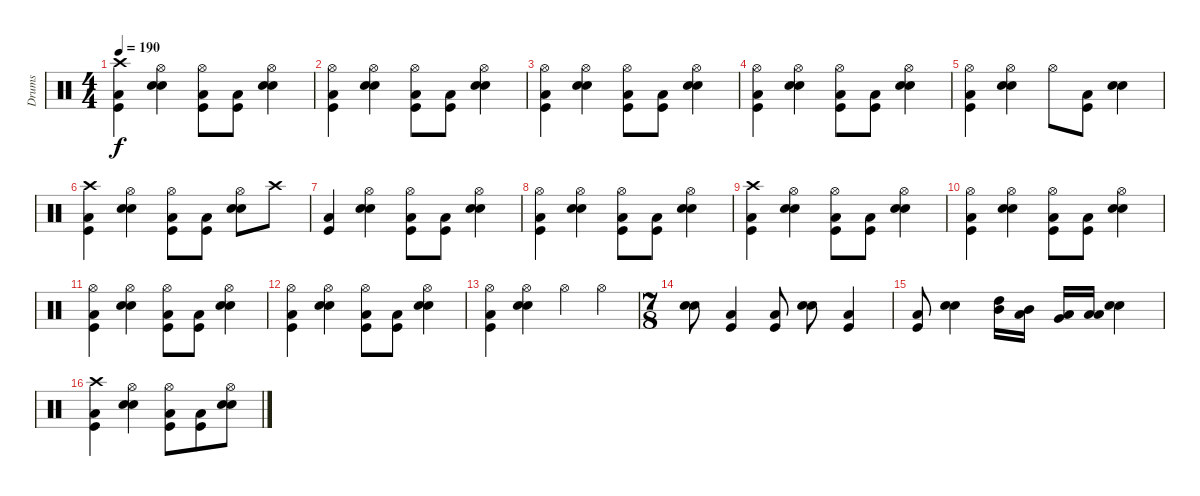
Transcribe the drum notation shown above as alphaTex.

\track ("Drums" "Drums") {instrument percussion}
\staff {score}
\articulation defaults
\ts (4 4)
\tempo 190
\clef neutral
\ks c
("Crash high (hit)" "Kick (hit)" "Low Tom (hit)").4{dy f} ("Hi-Hat (open)" "Snare (hit) 2" "Electric Snare (hit)").4 ("Hi-Hat (open)" "Kick (hit)" "Low Tom (hit)").8 ("Kick (hit)" "Low Tom (hit)").8 ("Hi-Hat (open)" "Snare (hit) 2" "Electric Snare (hit)").4 |
("Hi-Hat (open)" "Kick (hit)" "Low Tom (hit)").4 ("Hi-Hat (open)" "Snare (hit) 2" "Electric Snare (hit)").4 ("Hi-Hat (open)" "Kick (hit)" "Low Tom (hit)").8 ("Kick (hit)" "Low Tom (hit)").8 ("Hi-Hat (open)" "Snare (hit) 2" "Electric Snare (hit)").4 |
("Hi-Hat (open)" "Kick (hit)" "Low Tom (hit)").4 ("Hi-Hat (open)" "Snare (hit) 2" "Electric Snare (hit)").4 ("Hi-Hat (open)" "Kick (hit)" "Low Tom (hit)").8 ("Kick (hit)" "Low Tom (hit)").8 ("Hi-Hat (open)" "Snare (hit) 2" "Electric Snare (hit)").4 |
("Hi-Hat (open)" "Kick (hit)" "Low Tom (hit)").4 ("Hi-Hat (open)" "Snare (hit) 2" "Electric Snare (hit)").4 ("Hi-Hat (open)" "Kick (hit)" "Low Tom (hit)").8 ("Kick (hit)" "Low Tom (hit)").8 ("Hi-Hat (open)" "Snare (hit) 2" "Electric Snare (hit)").4 |
("Hi-Hat (open)" "Kick (hit)" "Low Tom (hit)").4 ("Hi-Hat (open)" "Snare (hit) 2" "Electric Snare (hit)").4 "Hi-Hat (open)".8 ("Kick (hit)" "Low Tom (hit)").8 ("Snare (hit) 2" "Electric Snare (hit)").4 |
("Crash high (hit)" "Kick (hit)" "Low Tom (hit)").4 ("Hi-Hat (open)" "Snare (hit) 2" "Electric Snare (hit)").4 ("Hi-Hat (open)" "Kick (hit)" "Low Tom (hit)").8 ("Kick (hit)" "Low Tom (hit)").8 ("Hi-Hat (open)" "Snare (hit) 2" "Electric Snare (hit)").8 "Crash high (hit)".8 |
("Kick (hit)" "Low Tom (hit)").4 ("Hi-Hat (open)" "Snare (hit) 2" "Electric Snare (hit)").4 ("Hi-Hat (open)" "Kick (hit)" "Low Tom (hit)").8 ("Kick (hit)" "Low Tom (hit)").8 ("Hi-Hat (open)" "Snare (hit) 2" "Electric Snare (hit)").4 |
("Hi-Hat (open)" "Kick (hit)" "Low Tom (hit)").4 ("Hi-Hat (open)" "Snare (hit) 2" "Electric Snare (hit)").4 ("Hi-Hat (open)" "Kick (hit)" "Low Tom (hit)").8 ("Kick (hit)" "Low Tom (hit)").8 ("Hi-Hat (open)" "Snare (hit) 2" "Electric Snare (hit)").4 |
("Crash high (hit)" "Kick (hit)" "Low Tom (hit)").4 ("Hi-Hat (open)" "Snare (hit) 2" "Electric Snare (hit)").4 ("Hi-Hat (open)" "Kick (hit)" "Low Tom (hit)").8 ("Kick (hit)" "Low Tom (hit)").8 ("Hi-Hat (open)" "Snare (hit) 2" "Electric Snare (hit)").4 |
("Hi-Hat (open)" "Kick (hit)" "Low Tom (hit)").4 ("Hi-Hat (open)" "Snare (hit) 2" "Electric Snare (hit)").4 ("Hi-Hat (open)" "Kick (hit)" "Low Tom (hit)").8 ("Kick (hit)" "Low Tom (hit)").8 ("Hi-Hat (open)" "Snare (hit) 2" "Electric Snare (hit)").4 |
("Hi-Hat (open)" "Kick (hit)" "Low Tom (hit)").4 ("Hi-Hat (open)" "Snare (hit) 2" "Electric Snare (hit)").4 ("Hi-Hat (open)" "Kick (hit)" "Low Tom (hit)").8 ("Kick (hit)" "Low Tom (hit)").8 ("Hi-Hat (open)" "Snare (hit) 2" "Electric Snare (hit)").4 |
("Hi-Hat (open)" "Kick (hit)" "Low Tom (hit)").4 ("Hi-Hat (open)" "Snare (hit) 2" "Electric Snare (hit)").4 ("Hi-Hat (open)" "Kick (hit)" "Low Tom (hit)").8 ("Kick (hit)" "Low Tom (hit)").8 ("Hi-Hat (open)" "Snare (hit) 2" "Electric Snare (hit)").4 |
("Hi-Hat (open)" "Kick (hit)" "Low Tom (hit)").4 ("Hi-Hat (open)" "Snare (hit) 2" "Electric Snare (hit)").4 "Hi-Hat (open)".4 "Hi-Hat (open)".4 |
\ts (7 8)
("Snare (hit) 2" "Electric Snare (hit)").8 ("Kick (hit)" "Low Tom (hit)").4 ("Kick (hit)" "Low Tom (hit)").8 ("Snare (hit) 2" "Electric Snare (hit)").8 ("Kick (hit)" "Low Tom (hit)").4 |
("Kick (hit)" "Low Tom (hit)").8 ("Snare (hit) 2" "Electric Snare (hit)").4 ("Mid Tom (hit)" "High Tom (hit)").16 ("Low Tom (hit)" "Mid Tom (hit)").16 ("Very Low Tom (hit)" "Low Tom (hit)").16 ("Low Floor Tom (hit)" "Low Floor Tom (hit)").16 ("Snare (hit) 2" "Electric Snare (hit)").4 |
("Crash high (hit)" "Kick (hit)" "Low Tom (hit)").4 ("Hi-Hat (open)" "Snare (hit) 2" "Electric Snare (hit)").4 ("Hi-Hat (open)" "Kick (hit)" "Low Tom (hit)").8 ("Kick (hit)" "Low Tom (hit)").8 ("Hi-Hat (open)" "Snare (hit) 2" "Electric Snare (hit)").8
